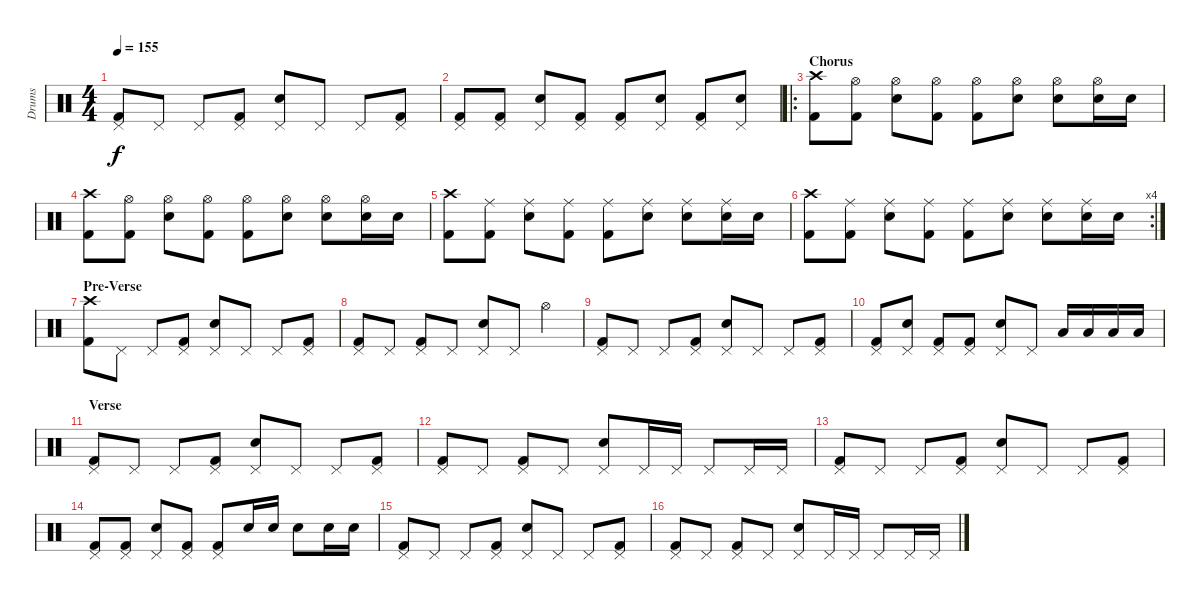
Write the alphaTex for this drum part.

\track ("Drums" "Drums") {instrument percussion}
\staff {score}
\articulation defaults
\ts (4 4)
\tempo 155
\clef neutral
\ks c
("Pedal Hi-Hat (hit)" "Kick (hit) 2").8{dy f} "Pedal Hi-Hat (hit)".8 "Pedal Hi-Hat (hit)".8 ("Pedal Hi-Hat (hit)" "Kick (hit) 2").8 ("Pedal Hi-Hat (hit)" "Snare (hit) 2").8 "Pedal Hi-Hat (hit)".8 "Pedal Hi-Hat (hit)".8 ("Pedal Hi-Hat (hit)" "Kick (hit) 2").8 |
("Pedal Hi-Hat (hit)" "Kick (hit) 2").8 ("Pedal Hi-Hat (hit)" "Kick (hit) 2").8 ("Pedal Hi-Hat (hit)" "Snare (hit) 2").8 ("Pedal Hi-Hat (hit)" "Kick (hit) 2").8 ("Pedal Hi-Hat (hit)" "Kick (hit) 2").8 ("Pedal Hi-Hat (hit)" "Snare (hit) 2").8 ("Pedal Hi-Hat (hit)" "Kick (hit) 2").8 ("Pedal Hi-Hat (hit)" "Snare (hit) 2").8 |
\ro
\section ("" "Chorus")
("Crash high (hit)" "Kick (hit) 2").8 ("Hi-Hat (open)" "Kick (hit) 2").8 ("Hi-Hat (open)" "Snare (hit) 2").8 ("Hi-Hat (open)" "Kick (hit) 2").8 ("Hi-Hat (open)" "Kick (hit) 2").8 ("Hi-Hat (open)" "Snare (hit) 2").8 ("Hi-Hat (open)" "Snare (hit) 2").8 ("Hi-Hat (open)" "Snare (hit) 2").16 "Snare (hit) 2".16 |
("Crash high (hit)" "Kick (hit) 2").8 ("Hi-Hat (open)" "Kick (hit) 2").8 ("Hi-Hat (open)" "Snare (hit) 2").8 ("Hi-Hat (open)" "Kick (hit) 2").8 ("Hi-Hat (open)" "Kick (hit) 2").8 ("Hi-Hat (open)" "Snare (hit) 2").8 ("Hi-Hat (open)" "Snare (hit) 2").8 ("Hi-Hat (open)" "Snare (hit) 2").16 "Snare (hit) 2".16 |
("Crash high (hit)" "Kick (hit) 2").8 ("Ride (middle)" "Kick (hit) 2").8 ("Ride (middle)" "Snare (hit) 2").8 ("Ride (middle)" "Kick (hit) 2").8 ("Ride (middle)" "Kick (hit) 2").8 ("Ride (middle)" "Snare (hit) 2").8 ("Ride (middle)" "Snare (hit) 2").8 ("Ride (middle)" "Snare (hit) 2").16 "Snare (hit) 2".16 |
\rc 4
("Crash high (hit)" "Kick (hit) 2").8 ("Ride (middle)" "Kick (hit) 2").8 ("Ride (middle)" "Snare (hit) 2").8 ("Ride (middle)" "Kick (hit) 2").8 ("Ride (middle)" "Kick (hit) 2").8 ("Ride (middle)" "Snare (hit) 2").8 ("Ride (middle)" "Snare (hit) 2").8 ("Ride (middle)" "Snare (hit) 2").16 "Snare (hit) 2".16 |
\section ("" "Pre-Verse")
("Crash high (hit)" "Kick (hit) 2").8 "Pedal Hi-Hat (hit)".8 "Pedal Hi-Hat (hit)".8 ("Pedal Hi-Hat (hit)" "Kick (hit) 2").8 ("Pedal Hi-Hat (hit)" "Snare (hit) 2").8 "Pedal Hi-Hat (hit)".8 "Pedal Hi-Hat (hit)".8 ("Pedal Hi-Hat (hit)" "Kick (hit) 2").8 |
("Pedal Hi-Hat (hit)" "Kick (hit) 2").8 "Pedal Hi-Hat (hit)".8 ("Pedal Hi-Hat (hit)" "Kick (hit) 2").8 "Pedal Hi-Hat (hit)".8 ("Pedal Hi-Hat (hit)" "Snare (hit) 2").8 "Pedal Hi-Hat (hit)".8 "Hi-Hat (open)".4 |
("Pedal Hi-Hat (hit)" "Kick (hit) 2").8 "Pedal Hi-Hat (hit)".8 "Pedal Hi-Hat (hit)".8 ("Pedal Hi-Hat (hit)" "Kick (hit) 2").8 ("Pedal Hi-Hat (hit)" "Snare (hit) 2").8 "Pedal Hi-Hat (hit)".8 "Pedal Hi-Hat (hit)".8 ("Pedal Hi-Hat (hit)" "Kick (hit) 2").8 |
("Pedal Hi-Hat (hit)" "Kick (hit) 2").8 ("Pedal Hi-Hat (hit)" "Snare (hit) 2").8 ("Pedal Hi-Hat (hit)" "Kick (hit) 2").8 ("Pedal Hi-Hat (hit)" "Kick (hit) 2").8 ("Pedal Hi-Hat (hit)" "Snare (hit) 2").8 "Pedal Hi-Hat (hit)".8 "Low Floor Tom (hit)".16 "Low Floor Tom (hit)".16 "Low Floor Tom (hit)".16 "Low Floor Tom (hit)".16 |
\section ("" "Verse")
("Pedal Hi-Hat (hit)" "Kick (hit) 2").8 "Pedal Hi-Hat (hit)".8 "Pedal Hi-Hat (hit)".8 ("Pedal Hi-Hat (hit)" "Kick (hit) 2").8 ("Pedal Hi-Hat (hit)" "Snare (hit) 2").8 "Pedal Hi-Hat (hit)".8 "Pedal Hi-Hat (hit)".8 ("Pedal Hi-Hat (hit)" "Kick (hit) 2").8 |
("Pedal Hi-Hat (hit)" "Kick (hit) 2").8 "Pedal Hi-Hat (hit)".8 ("Pedal Hi-Hat (hit)" "Kick (hit) 2").8 "Pedal Hi-Hat (hit)".8 ("Pedal Hi-Hat (hit)" "Snare (hit) 2").8 "Pedal Hi-Hat (hit)".16 "Pedal Hi-Hat (hit)".16 "Pedal Hi-Hat (hit)".8 "Pedal Hi-Hat (hit)".16 "Pedal Hi-Hat (hit)".16 |
("Pedal Hi-Hat (hit)" "Kick (hit) 2").8 "Pedal Hi-Hat (hit)".8 "Pedal Hi-Hat (hit)".8 ("Pedal Hi-Hat (hit)" "Kick (hit) 2").8 ("Pedal Hi-Hat (hit)" "Snare (hit) 2").8 "Pedal Hi-Hat (hit)".8 "Pedal Hi-Hat (hit)".8 ("Pedal Hi-Hat (hit)" "Kick (hit) 2").8 |
("Pedal Hi-Hat (hit)" "Kick (hit) 2").8 ("Pedal Hi-Hat (hit)" "Kick (hit) 2").8 ("Pedal Hi-Hat (hit)" "Snare (hit) 2").8 ("Pedal Hi-Hat (hit)" "Kick (hit) 2").8 ("Pedal Hi-Hat (hit)" "Kick (hit) 2").8 "Snare (hit) 2".16 "Snare (hit) 2".16 "Snare (hit) 2".8 "Snare (hit) 2".16 "Snare (hit) 2".16 |
("Pedal Hi-Hat (hit)" "Kick (hit) 2").8 "Pedal Hi-Hat (hit)".8 "Pedal Hi-Hat (hit)".8 ("Pedal Hi-Hat (hit)" "Kick (hit) 2").8 ("Pedal Hi-Hat (hit)" "Snare (hit) 2").8 "Pedal Hi-Hat (hit)".8 "Pedal Hi-Hat (hit)".8 ("Pedal Hi-Hat (hit)" "Kick (hit) 2").8 |
("Pedal Hi-Hat (hit)" "Kick (hit) 2").8 "Pedal Hi-Hat (hit)".8 ("Pedal Hi-Hat (hit)" "Kick (hit) 2").8 "Pedal Hi-Hat (hit)".8 ("Pedal Hi-Hat (hit)" "Snare (hit) 2").8 "Pedal Hi-Hat (hit)".16 "Pedal Hi-Hat (hit)".16 "Pedal Hi-Hat (hit)".8 "Pedal Hi-Hat (hit)".16 "Pedal Hi-Hat (hit)".16
